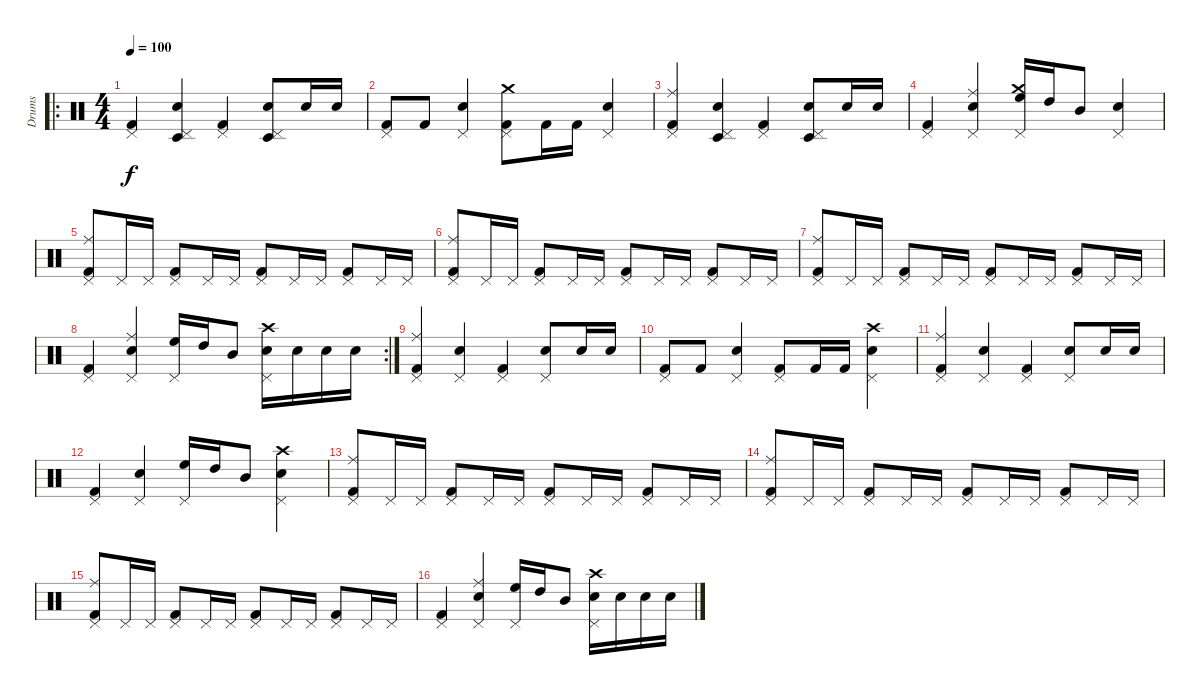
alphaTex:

\track ("Drums" "Drums") {instrument percussion}
\staff {score}
\articulation defaults
\ro
\ts (4 4)
\tempo 100
\clef neutral
\ks c
("Pedal Hi-Hat (hit)" "Kick (hit) 2").4{dy f} ("Pedal Hi-Hat (hit)" "Electric Snare (hit)" "Timbale low (hit)").4 ("Pedal Hi-Hat (hit)" "Kick (hit) 2").4 ("Pedal Hi-Hat (hit)" "Timbale low (hit)" "Electric Snare (hit)").8 "Electric Snare (hit)".16 "Snare (hit) 2".16 |
("Pedal Hi-Hat (hit)" "Kick (hit) 2").8 "Kick (hit) 2".8 ("Pedal Hi-Hat (hit)" "Electric Snare (hit)").4 ("Pedal Hi-Hat (hit)" "Crash medium (hit)" "Kick (hit) 2").8 "Kick (hit) 2".16 "Kick (hit) 2".16 ("Electric Snare (hit)" "Pedal Hi-Hat (hit)").4 |
("Pedal Hi-Hat (hit)" "Ride (middle)" "Kick (hit) 2").4 ("Pedal Hi-Hat (hit)" "Electric Snare (hit)" "Timbale low (hit)").4 ("Pedal Hi-Hat (hit)" "Kick (hit) 2").4 ("Pedal Hi-Hat (hit)" "Timbale low (hit)" "Electric Snare (hit)").8 "Electric Snare (hit)".16 "Electric Snare (hit)".16 |
("Pedal Hi-Hat (hit)" "Kick (hit) 2").4 ("Pedal Hi-Hat (hit)" "Electric Snare (hit)" "Ride (middle)").4 ("Pedal Hi-Hat (hit)" "High Floor Tom (hit)" "Crash medium (hit)").16 "High Tom (hit)".16 "Mid Tom (hit)".8 ("Electric Snare (hit)" "Pedal Hi-Hat (hit)").4 |
("Pedal Hi-Hat (hit)" "Ride (middle)" "Kick (hit) 2").8 "Pedal Hi-Hat (hit)".16 "Pedal Hi-Hat (hit)".16 ("Pedal Hi-Hat (hit)" "Kick (hit) 2").8 "Pedal Hi-Hat (hit)".16 "Pedal Hi-Hat (hit)".16 ("Pedal Hi-Hat (hit)" "Kick (hit) 2").8 "Pedal Hi-Hat (hit)".16 "Pedal Hi-Hat (hit)".16 ("Pedal Hi-Hat (hit)" "Kick (hit) 2").8 "Pedal Hi-Hat (hit)".16 "Pedal Hi-Hat (hit)".16 |
("Pedal Hi-Hat (hit)" "Ride (middle)" "Kick (hit) 2").8 "Pedal Hi-Hat (hit)".16 "Pedal Hi-Hat (hit)".16 ("Pedal Hi-Hat (hit)" "Kick (hit) 2").8 "Pedal Hi-Hat (hit)".16 "Pedal Hi-Hat (hit)".16 ("Pedal Hi-Hat (hit)" "Kick (hit) 2").8 "Pedal Hi-Hat (hit)".16 "Pedal Hi-Hat (hit)".16 ("Pedal Hi-Hat (hit)" "Kick (hit) 2").8 "Pedal Hi-Hat (hit)".16 "Pedal Hi-Hat (hit)".16 |
("Pedal Hi-Hat (hit)" "Ride (middle)" "Kick (hit) 2").8 "Pedal Hi-Hat (hit)".16 "Pedal Hi-Hat (hit)".16 ("Pedal Hi-Hat (hit)" "Kick (hit) 2").8 "Pedal Hi-Hat (hit)".16 "Pedal Hi-Hat (hit)".16 ("Pedal Hi-Hat (hit)" "Kick (hit) 2").8 "Pedal Hi-Hat (hit)".16 "Pedal Hi-Hat (hit)".16 ("Pedal Hi-Hat (hit)" "Kick (hit) 2").8 "Pedal Hi-Hat (hit)".16 "Pedal Hi-Hat (hit)".16 |
\rc 2
("Pedal Hi-Hat (hit)" "Kick (hit) 2").4 ("Pedal Hi-Hat (hit)" "Electric Snare (hit)" "Ride (middle)").4 ("Pedal Hi-Hat (hit)" "High Floor Tom (hit)").16 "High Tom (hit)".16 "Mid Tom (hit)".8 ("Crash high (hit)" "Electric Snare (hit)" "Pedal Hi-Hat (hit)").16 "Electric Snare (hit)".16 "Electric Snare (hit)".16 "Electric Snare (hit)".16 |
("Pedal Hi-Hat (hit)" "Ride (middle)" "Kick (hit) 2").4 ("Pedal Hi-Hat (hit)" "Electric Snare (hit)").4 ("Pedal Hi-Hat (hit)" "Kick (hit) 2").4 ("Pedal Hi-Hat (hit)" "Electric Snare (hit)").8 "Electric Snare (hit)".16 "Snare (hit) 2".16 |
("Pedal Hi-Hat (hit)" "Kick (hit) 2").8 "Kick (hit) 2".8 ("Pedal Hi-Hat (hit)" "Electric Snare (hit)").4 ("Pedal Hi-Hat (hit)" "Kick (hit) 2").8 "Kick (hit) 2".16 "Kick (hit) 2".16 ("Crash high (hit)" "Electric Snare (hit)" "Pedal Hi-Hat (hit)").4 |
("Pedal Hi-Hat (hit)" "Ride (middle)" "Kick (hit) 2").4 ("Pedal Hi-Hat (hit)" "Electric Snare (hit)").4 ("Pedal Hi-Hat (hit)" "Kick (hit) 2").4 ("Pedal Hi-Hat (hit)" "Electric Snare (hit)").8 "Electric Snare (hit)".16 "Electric Snare (hit)".16 |
("Pedal Hi-Hat (hit)" "Kick (hit) 2").4 ("Pedal Hi-Hat (hit)" "Electric Snare (hit)").4 ("Pedal Hi-Hat (hit)" "High Floor Tom (hit)").16 "High Tom (hit)".16 "Mid Tom (hit)".8 ("Crash high (hit)" "Electric Snare (hit)" "Pedal Hi-Hat (hit)").4 |
("Pedal Hi-Hat (hit)" "Ride (middle)" "Kick (hit) 2").8 "Pedal Hi-Hat (hit)".16 "Pedal Hi-Hat (hit)".16 ("Pedal Hi-Hat (hit)" "Kick (hit) 2").8 "Pedal Hi-Hat (hit)".16 "Pedal Hi-Hat (hit)".16 ("Pedal Hi-Hat (hit)" "Kick (hit) 2").8 "Pedal Hi-Hat (hit)".16 "Pedal Hi-Hat (hit)".16 ("Pedal Hi-Hat (hit)" "Kick (hit) 2").8 "Pedal Hi-Hat (hit)".16 "Pedal Hi-Hat (hit)".16 |
("Pedal Hi-Hat (hit)" "Ride (middle)" "Kick (hit) 2").8 "Pedal Hi-Hat (hit)".16 "Pedal Hi-Hat (hit)".16 ("Pedal Hi-Hat (hit)" "Kick (hit) 2").8 "Pedal Hi-Hat (hit)".16 "Pedal Hi-Hat (hit)".16 ("Pedal Hi-Hat (hit)" "Kick (hit) 2").8 "Pedal Hi-Hat (hit)".16 "Pedal Hi-Hat (hit)".16 ("Pedal Hi-Hat (hit)" "Kick (hit) 2").8 "Pedal Hi-Hat (hit)".16 "Pedal Hi-Hat (hit)".16 |
("Pedal Hi-Hat (hit)" "Ride (middle)" "Kick (hit) 2").8 "Pedal Hi-Hat (hit)".16 "Pedal Hi-Hat (hit)".16 ("Pedal Hi-Hat (hit)" "Kick (hit) 2").8 "Pedal Hi-Hat (hit)".16 "Pedal Hi-Hat (hit)".16 ("Pedal Hi-Hat (hit)" "Kick (hit) 2").8 "Pedal Hi-Hat (hit)".16 "Pedal Hi-Hat (hit)".16 ("Pedal Hi-Hat (hit)" "Kick (hit) 2").8 "Pedal Hi-Hat (hit)".16 "Pedal Hi-Hat (hit)".16 |
("Pedal Hi-Hat (hit)" "Kick (hit) 2").4 ("Pedal Hi-Hat (hit)" "Electric Snare (hit)" "Ride (middle)").4 ("Pedal Hi-Hat (hit)" "High Floor Tom (hit)").16 "High Tom (hit)".16 "Mid Tom (hit)".8 ("Crash high (hit)" "Electric Snare (hit)" "Pedal Hi-Hat (hit)").16 "Electric Snare (hit)".16 "Electric Snare (hit)".16 "Electric Snare (hit)".16
